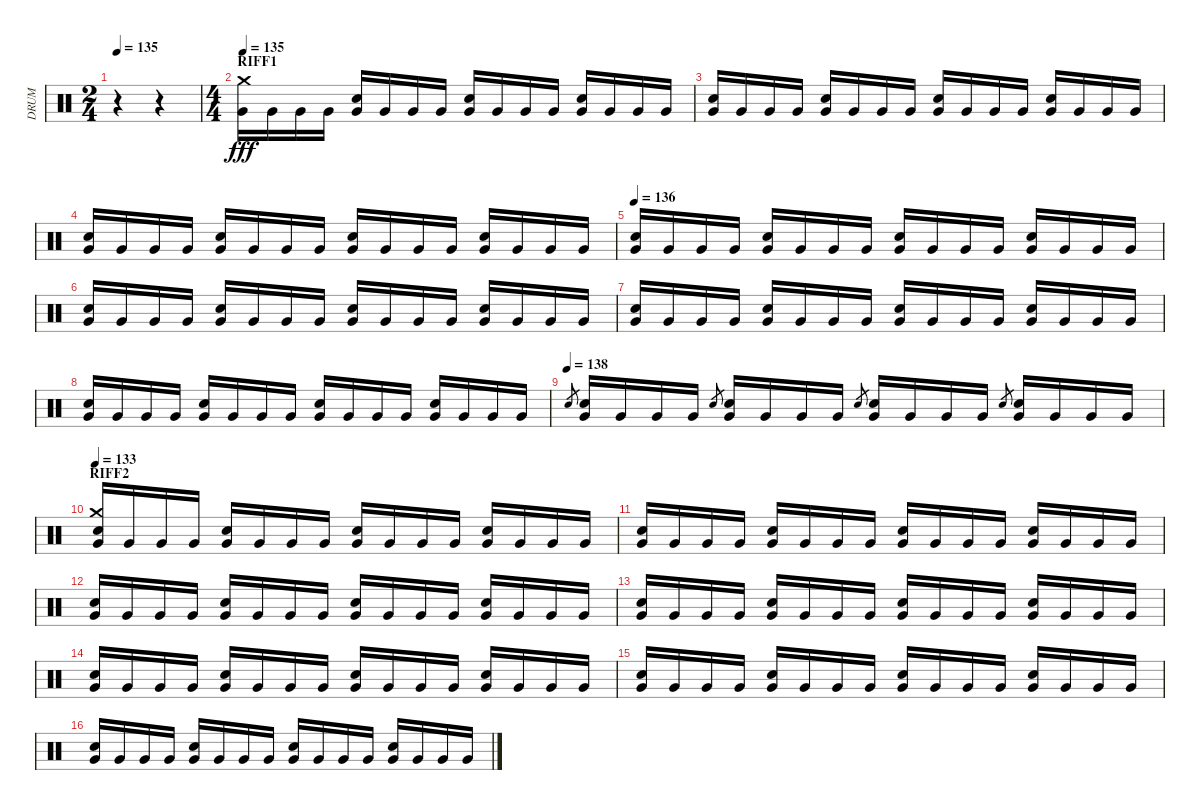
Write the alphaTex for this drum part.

\track ("DRUM" "DRUM") {instrument percussion}
\staff {score}
\articulation defaults
\ts (2 4)
\tempo 135
\tempo 120
\tempo 135
\clef neutral
\ks c
r.4{dy fff} r.4 |
\ts (4 4)
\section ("" "RIFF1")
\tempo 135
("Very Low Tom (hit)" "Crash medium (hit)").16 "Very Low Tom (hit)".16 "Very Low Tom (hit)".16 "Very Low Tom (hit)".16 ("Very Low Tom (hit)" "Electric Snare (hit)").16 "Very Low Tom (hit)".16 "Very Low Tom (hit)".16 "Very Low Tom (hit)".16 ("Very Low Tom (hit)" "Electric Snare (hit)").16 "Very Low Tom (hit)".16 "Very Low Tom (hit)".16 "Very Low Tom (hit)".16 ("Very Low Tom (hit)" "Electric Snare (hit)").16 "Very Low Tom (hit)".16 "Very Low Tom (hit)".16 "Very Low Tom (hit)".16 |
("Very Low Tom (hit)" "Electric Snare (hit)").16 "Very Low Tom (hit)".16 "Very Low Tom (hit)".16 "Very Low Tom (hit)".16 ("Very Low Tom (hit)" "Electric Snare (hit)").16 "Very Low Tom (hit)".16 "Very Low Tom (hit)".16 "Very Low Tom (hit)".16 ("Very Low Tom (hit)" "Electric Snare (hit)").16 "Very Low Tom (hit)".16 "Very Low Tom (hit)".16 "Very Low Tom (hit)".16 ("Very Low Tom (hit)" "Electric Snare (hit)").16 "Very Low Tom (hit)".16 "Very Low Tom (hit)".16 "Very Low Tom (hit)".16 |
("Very Low Tom (hit)" "Electric Snare (hit)").16 "Very Low Tom (hit)".16 "Very Low Tom (hit)".16 "Very Low Tom (hit)".16 ("Very Low Tom (hit)" "Electric Snare (hit)").16 "Very Low Tom (hit)".16 "Very Low Tom (hit)".16 "Very Low Tom (hit)".16 ("Very Low Tom (hit)" "Electric Snare (hit)").16 "Very Low Tom (hit)".16 "Very Low Tom (hit)".16 "Very Low Tom (hit)".16 ("Very Low Tom (hit)" "Electric Snare (hit)").16 "Very Low Tom (hit)".16 "Very Low Tom (hit)".16 "Very Low Tom (hit)".16 |
\tempo 136
("Very Low Tom (hit)" "Electric Snare (hit)").16 "Very Low Tom (hit)".16 "Very Low Tom (hit)".16 "Very Low Tom (hit)".16 ("Very Low Tom (hit)" "Electric Snare (hit)").16 "Very Low Tom (hit)".16 "Very Low Tom (hit)".16 "Very Low Tom (hit)".16 ("Very Low Tom (hit)" "Electric Snare (hit)").16 "Very Low Tom (hit)".16 "Very Low Tom (hit)".16 "Very Low Tom (hit)".16 ("Very Low Tom (hit)" "Electric Snare (hit)").16 "Very Low Tom (hit)".16 "Very Low Tom (hit)".16 "Very Low Tom (hit)".16 |
("Very Low Tom (hit)" "Electric Snare (hit)").16 "Very Low Tom (hit)".16 "Very Low Tom (hit)".16 "Very Low Tom (hit)".16 ("Very Low Tom (hit)" "Electric Snare (hit)").16 "Very Low Tom (hit)".16 "Very Low Tom (hit)".16 "Very Low Tom (hit)".16 ("Very Low Tom (hit)" "Electric Snare (hit)").16 "Very Low Tom (hit)".16 "Very Low Tom (hit)".16 "Very Low Tom (hit)".16 ("Very Low Tom (hit)" "Electric Snare (hit)").16 "Very Low Tom (hit)".16 "Very Low Tom (hit)".16 "Very Low Tom (hit)".16 |
("Very Low Tom (hit)" "Electric Snare (hit)").16 "Very Low Tom (hit)".16 "Very Low Tom (hit)".16 "Very Low Tom (hit)".16 ("Very Low Tom (hit)" "Electric Snare (hit)").16 "Very Low Tom (hit)".16 "Very Low Tom (hit)".16 "Very Low Tom (hit)".16 ("Very Low Tom (hit)" "Electric Snare (hit)").16 "Very Low Tom (hit)".16 "Very Low Tom (hit)".16 "Very Low Tom (hit)".16 ("Very Low Tom (hit)" "Electric Snare (hit)").16 "Very Low Tom (hit)".16 "Very Low Tom (hit)".16 "Very Low Tom (hit)".16 |
("Very Low Tom (hit)" "Electric Snare (hit)").16 "Very Low Tom (hit)".16 "Very Low Tom (hit)".16 "Very Low Tom (hit)".16 ("Very Low Tom (hit)" "Electric Snare (hit)").16 "Very Low Tom (hit)".16 "Very Low Tom (hit)".16 "Very Low Tom (hit)".16 ("Very Low Tom (hit)" "Electric Snare (hit)").16 "Very Low Tom (hit)".16 "Very Low Tom (hit)".16 "Very Low Tom (hit)".16 ("Very Low Tom (hit)" "Electric Snare (hit)").16 "Very Low Tom (hit)".16 "Very Low Tom (hit)".16 "Very Low Tom (hit)".16 |
\tempo (138)
"Electric Snare (hit)".8{gr} ("Very Low Tom (hit)" "Electric Snare (hit)").16 "Very Low Tom (hit)".16 "Very Low Tom (hit)".16 "Very Low Tom (hit)".16 "Electric Snare (hit)".8{gr} ("Very Low Tom (hit)" "Electric Snare (hit)").16 "Very Low Tom (hit)".16 "Very Low Tom (hit)".16 "Very Low Tom (hit)".16 "Electric Snare (hit)".8{gr} ("Very Low Tom (hit)" "Electric Snare (hit)").16 "Very Low Tom (hit)".16 "Very Low Tom (hit)".16 "Very Low Tom (hit)".16 "Electric Snare (hit)".8{gr} ("Very Low Tom (hit)" "Electric Snare (hit)").16 "Very Low Tom (hit)".16 "Very Low Tom (hit)".16 "Very Low Tom (hit)".16 |
\section ("" "RIFF2")
\tempo 133
("Very Low Tom (hit)" "Electric Snare (hit)" "Crash medium (hit)").16 "Very Low Tom (hit)".16 "Very Low Tom (hit)".16 "Very Low Tom (hit)".16 ("Very Low Tom (hit)" "Electric Snare (hit)").16 "Very Low Tom (hit)".16 "Very Low Tom (hit)".16 "Very Low Tom (hit)".16 ("Very Low Tom (hit)" "Electric Snare (hit)").16 "Very Low Tom (hit)".16 "Very Low Tom (hit)".16 "Very Low Tom (hit)".16 ("Very Low Tom (hit)" "Electric Snare (hit)").16 "Very Low Tom (hit)".16 "Very Low Tom (hit)".16 "Very Low Tom (hit)".16 |
("Very Low Tom (hit)" "Electric Snare (hit)").16 "Very Low Tom (hit)".16 "Very Low Tom (hit)".16 "Very Low Tom (hit)".16 ("Very Low Tom (hit)" "Electric Snare (hit)").16 "Very Low Tom (hit)".16 "Very Low Tom (hit)".16 "Very Low Tom (hit)".16 ("Very Low Tom (hit)" "Electric Snare (hit)").16 "Very Low Tom (hit)".16 "Very Low Tom (hit)".16 "Very Low Tom (hit)".16 ("Very Low Tom (hit)" "Electric Snare (hit)").16 "Very Low Tom (hit)".16 "Very Low Tom (hit)".16 "Very Low Tom (hit)".16 |
("Very Low Tom (hit)" "Electric Snare (hit)").16 "Very Low Tom (hit)".16 "Very Low Tom (hit)".16 "Very Low Tom (hit)".16 ("Very Low Tom (hit)" "Electric Snare (hit)").16 "Very Low Tom (hit)".16 "Very Low Tom (hit)".16 "Very Low Tom (hit)".16 ("Very Low Tom (hit)" "Electric Snare (hit)").16 "Very Low Tom (hit)".16 "Very Low Tom (hit)".16 "Very Low Tom (hit)".16 ("Very Low Tom (hit)" "Electric Snare (hit)").16 "Very Low Tom (hit)".16 "Very Low Tom (hit)".16 "Very Low Tom (hit)".16 |
("Very Low Tom (hit)" "Electric Snare (hit)").16 "Very Low Tom (hit)".16 "Very Low Tom (hit)".16 "Very Low Tom (hit)".16 ("Very Low Tom (hit)" "Electric Snare (hit)").16 "Very Low Tom (hit)".16 "Very Low Tom (hit)".16 "Very Low Tom (hit)".16 ("Very Low Tom (hit)" "Electric Snare (hit)").16 "Very Low Tom (hit)".16 "Very Low Tom (hit)".16 "Very Low Tom (hit)".16 ("Very Low Tom (hit)" "Electric Snare (hit)").16 "Very Low Tom (hit)".16 "Very Low Tom (hit)".16 "Very Low Tom (hit)".16 |
("Very Low Tom (hit)" "Electric Snare (hit)").16 "Very Low Tom (hit)".16 "Very Low Tom (hit)".16 "Very Low Tom (hit)".16 ("Very Low Tom (hit)" "Electric Snare (hit)").16 "Very Low Tom (hit)".16 "Very Low Tom (hit)".16 "Very Low Tom (hit)".16 ("Very Low Tom (hit)" "Electric Snare (hit)").16 "Very Low Tom (hit)".16 "Very Low Tom (hit)".16 "Very Low Tom (hit)".16 ("Very Low Tom (hit)" "Electric Snare (hit)").16 "Very Low Tom (hit)".16 "Very Low Tom (hit)".16 "Very Low Tom (hit)".16 |
("Very Low Tom (hit)" "Electric Snare (hit)").16 "Very Low Tom (hit)".16 "Very Low Tom (hit)".16 "Very Low Tom (hit)".16 ("Very Low Tom (hit)" "Electric Snare (hit)").16 "Very Low Tom (hit)".16 "Very Low Tom (hit)".16 "Very Low Tom (hit)".16 ("Very Low Tom (hit)" "Electric Snare (hit)").16 "Very Low Tom (hit)".16 "Very Low Tom (hit)".16 "Very Low Tom (hit)".16 ("Very Low Tom (hit)" "Electric Snare (hit)").16 "Very Low Tom (hit)".16 "Very Low Tom (hit)".16 "Very Low Tom (hit)".16 |
("Very Low Tom (hit)" "Electric Snare (hit)").16 "Very Low Tom (hit)".16 "Very Low Tom (hit)".16 "Very Low Tom (hit)".16 ("Very Low Tom (hit)" "Electric Snare (hit)").16 "Very Low Tom (hit)".16 "Very Low Tom (hit)".16 "Very Low Tom (hit)".16 ("Very Low Tom (hit)" "Electric Snare (hit)").16 "Very Low Tom (hit)".16 "Very Low Tom (hit)".16 "Very Low Tom (hit)".16 ("Very Low Tom (hit)" "Electric Snare (hit)").16 "Very Low Tom (hit)".16 "Very Low Tom (hit)".16 "Very Low Tom (hit)".16
